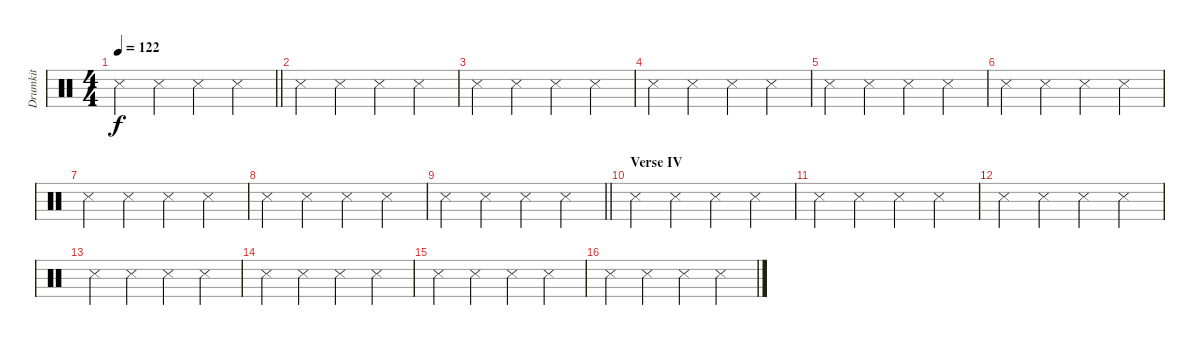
\track ("Drumkit" "Drumkit") {mute instrument percussion}
\staff {score}
\articulation defaults
\ts (4 4)
\tempo 122
\clef neutral
\barLineRight lightlight
\ks c "Snare (side stick) 3".4{dy f} "Snare (side stick) 3".4 "Snare (side stick) 3".4 "Snare (side stick) 3".4
|
"Snare (side stick) 3".4 "Snare (side stick) 3".4 "Snare (side stick) 3".4 "Snare (side stick) 3".4 |
"Snare (side stick) 3".4 "Snare (side stick) 3".4 "Snare (side stick) 3".4 "Snare (side stick) 3".4 |
"Snare (side stick) 3".4 "Snare (side stick) 3".4 "Snare (side stick) 3".4 "Snare (side stick) 3".4 |
"Snare (side stick) 3".4 "Snare (side stick) 3".4 "Snare (side stick) 3".4 "Snare (side stick) 3".4 |
"Snare (side stick) 3".4 "Snare (side stick) 3".4 "Snare (side stick) 3".4 "Snare (side stick) 3".4 |
"Snare (side stick) 3".4 "Snare (side stick) 3".4 "Snare (side stick) 3".4 "Snare (side stick) 3".4 |
"Snare (side stick) 3".4 "Snare (side stick) 3".4 "Snare (side stick) 3".4 "Snare (side stick) 3".4 |
\barLineRight lightlight "Snare (side stick) 3".4 "Snare (side stick) 3".4 "Snare (side stick) 3".4 "Snare (side stick) 3".4
|
\section ("" "Verse IV")
"Snare (side stick) 3".4 "Snare (side stick) 3".4 "Snare (side stick) 3".4 "Snare (side stick) 3".4 |
"Snare (side stick) 3".4 "Snare (side stick) 3".4 "Snare (side stick) 3".4 "Snare (side stick) 3".4 |
"Snare (side stick) 3".4 "Snare (side stick) 3".4 "Snare (side stick) 3".4 "Snare (side stick) 3".4 |
"Snare (side stick) 3".4 "Snare (side stick) 3".4 "Snare (side stick) 3".4 "Snare (side stick) 3".4 |
"Snare (side stick) 3".4 "Snare (side stick) 3".4 "Snare (side stick) 3".4 "Snare (side stick) 3".4 |
"Snare (side stick) 3".4 "Snare (side stick) 3".4 "Snare (side stick) 3".4 "Snare (side stick) 3".4 |
"Snare (side stick) 3".4 "Snare (side stick) 3".4 "Snare (side stick) 3".4 "Snare (side stick) 3".4
